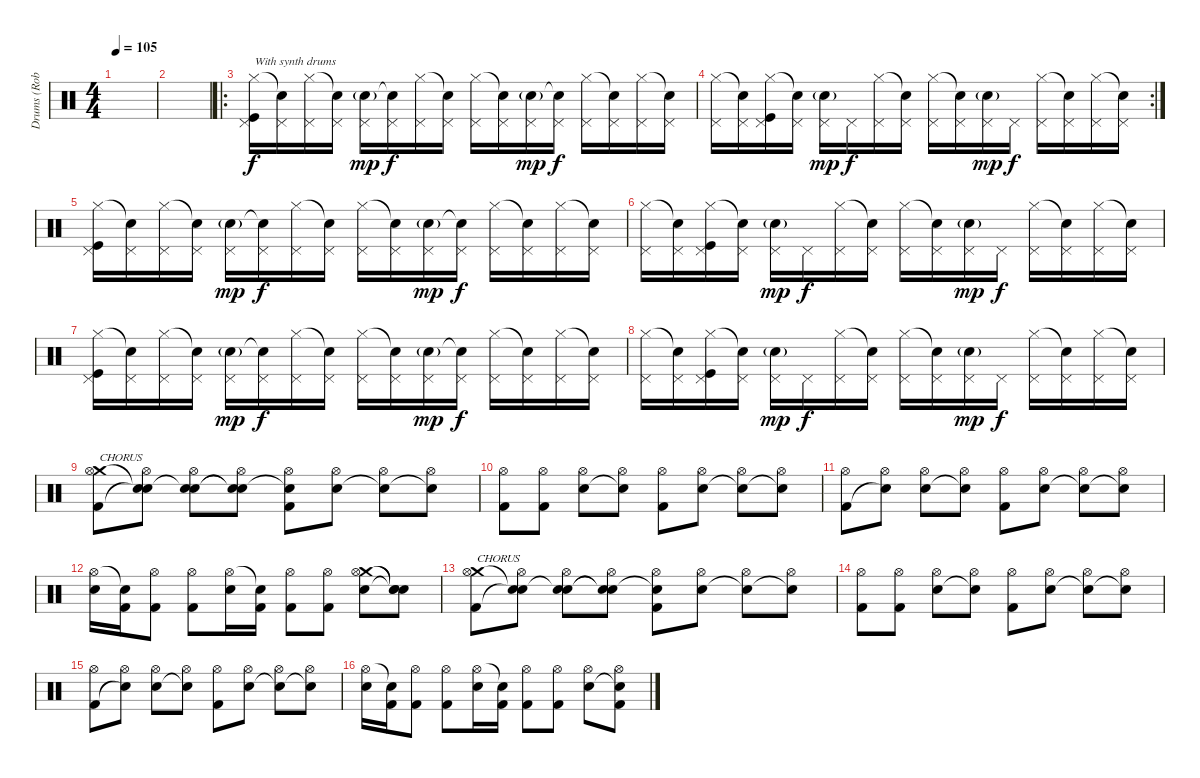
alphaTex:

\track ("Drums (Rob Bourdon)" "Drums (Rob") {instrument percussion}
\staff {score}
\articulation defaults
\ts (4 4)
\tempo 105
\clef neutral
\ks c
|
|
\ro
("Pedal Hi-Hat (hit)" "Hi-Hat (closed)" "Kick (hit)").16{txt "With synth drums"} ("Pedal Hi-Hat (hit)" "Snare (hit)"{t}).16 ("Pedal Hi-Hat (hit)" "Hi-Hat (closed)").16 ("Pedal Hi-Hat (hit)" "Snare (hit)"{t}).16 ("Pedal Hi-Hat (hit)" "Metronome (bell)"{g}).16{dy mp} ("Pedal Hi-Hat (hit)" "Snare (hit)"{t}).16{dy f} ("Pedal Hi-Hat (hit)" "Hi-Hat (closed)").16 ("Pedal Hi-Hat (hit)" "Snare (hit)"{t}).16 ("Pedal Hi-Hat (hit)" "Hi-Hat (closed)").16 ("Pedal Hi-Hat (hit)" "Snare (hit)"{t}).16 ("Pedal Hi-Hat (hit)" "Metronome (bell)"{g}).16{dy mp} ("Pedal Hi-Hat (hit)" "Snare (hit)"{t}).16{dy f} ("Pedal Hi-Hat (hit)" "Hi-Hat (closed)").16 ("Pedal Hi-Hat (hit)" "Snare (hit)"{t}).16 ("Pedal Hi-Hat (hit)" "Hi-Hat (closed)").16 ("Pedal Hi-Hat (hit)" "Snare (hit)"{t}).16 |
\rc 2
("Pedal Hi-Hat (hit)" "Hi-Hat (closed)").16 ("Pedal Hi-Hat (hit)" "Snare (hit)"{t}).16 ("Pedal Hi-Hat (hit)" "Hi-Hat (closed)" "Kick (hit)").16 ("Pedal Hi-Hat (hit)" "Snare (hit)"{t}).16 ("Pedal Hi-Hat (hit)" "Metronome (bell)"{g}).16{dy mp} "Pedal Hi-Hat (hit)".16{dy f} ("Pedal Hi-Hat (hit)" "Hi-Hat (closed)").16 ("Pedal Hi-Hat (hit)" "Snare (hit)"{t}).16 ("Pedal Hi-Hat (hit)" "Hi-Hat (closed)").16 ("Pedal Hi-Hat (hit)" "Snare (hit)"{t}).16 ("Pedal Hi-Hat (hit)" "Metronome (bell)"{g}).16{dy mp} "Pedal Hi-Hat (hit)".16{dy f} ("Pedal Hi-Hat (hit)" "Hi-Hat (closed)").16 ("Pedal Hi-Hat (hit)" "Snare (hit)"{t}).16 ("Pedal Hi-Hat (hit)" "Hi-Hat (closed)").16 ("Pedal Hi-Hat (hit)" "Snare (hit)"{t}).16 |
("Pedal Hi-Hat (hit)" "Hi-Hat (closed)" "Kick (hit)").16 ("Pedal Hi-Hat (hit)" "Snare (hit)"{t}).16 ("Pedal Hi-Hat (hit)" "Hi-Hat (closed)").16 ("Pedal Hi-Hat (hit)" "Snare (hit)"{t}).16 ("Pedal Hi-Hat (hit)" "Metronome (bell)"{g}).16{dy mp} ("Pedal Hi-Hat (hit)" "Snare (hit)"{t}).16{dy f} ("Pedal Hi-Hat (hit)" "Hi-Hat (closed)").16 ("Pedal Hi-Hat (hit)" "Snare (hit)"{t}).16 ("Pedal Hi-Hat (hit)" "Hi-Hat (closed)").16 ("Pedal Hi-Hat (hit)" "Snare (hit)"{t}).16 ("Pedal Hi-Hat (hit)" "Metronome (bell)"{g}).16{dy mp} ("Pedal Hi-Hat (hit)" "Snare (hit)"{t}).16{dy f} ("Pedal Hi-Hat (hit)" "Hi-Hat (closed)").16 ("Pedal Hi-Hat (hit)" "Snare (hit)"{t}).16 ("Pedal Hi-Hat (hit)" "Hi-Hat (closed)").16 ("Pedal Hi-Hat (hit)" "Snare (hit)"{t}).16 |
("Pedal Hi-Hat (hit)" "Hi-Hat (closed)").16 ("Pedal Hi-Hat (hit)" "Snare (hit)"{t}).16 ("Pedal Hi-Hat (hit)" "Hi-Hat (closed)" "Kick (hit)").16 ("Pedal Hi-Hat (hit)" "Snare (hit)"{t}).16 ("Pedal Hi-Hat (hit)" "Metronome (bell)"{g}).16{dy mp} "Pedal Hi-Hat (hit)".16{dy f} ("Pedal Hi-Hat (hit)" "Hi-Hat (closed)").16 ("Pedal Hi-Hat (hit)" "Snare (hit)"{t}).16 ("Pedal Hi-Hat (hit)" "Hi-Hat (closed)").16 ("Pedal Hi-Hat (hit)" "Snare (hit)"{t}).16 ("Pedal Hi-Hat (hit)" "Metronome (bell)"{g}).16{dy mp} "Pedal Hi-Hat (hit)".16{dy f} ("Pedal Hi-Hat (hit)" "Hi-Hat (closed)").16 ("Pedal Hi-Hat (hit)" "Snare (hit)"{t}).16 ("Pedal Hi-Hat (hit)" "Hi-Hat (closed)").16 ("Pedal Hi-Hat (hit)" "Snare (hit)"{t}).16 |
("Pedal Hi-Hat (hit)" "Hi-Hat (closed)" "Kick (hit)").16 ("Pedal Hi-Hat (hit)" "Snare (hit)"{t}).16 ("Pedal Hi-Hat (hit)" "Hi-Hat (closed)").16 ("Pedal Hi-Hat (hit)" "Snare (hit)"{t}).16 ("Pedal Hi-Hat (hit)" "Metronome (bell)"{g}).16{dy mp} ("Pedal Hi-Hat (hit)" "Snare (hit)"{t}).16{dy f} ("Pedal Hi-Hat (hit)" "Hi-Hat (closed)").16 ("Pedal Hi-Hat (hit)" "Snare (hit)"{t}).16 ("Pedal Hi-Hat (hit)" "Hi-Hat (closed)").16 ("Pedal Hi-Hat (hit)" "Snare (hit)"{t}).16 ("Pedal Hi-Hat (hit)" "Metronome (bell)"{g}).16{dy mp} ("Pedal Hi-Hat (hit)" "Snare (hit)"{t}).16{dy f} ("Pedal Hi-Hat (hit)" "Hi-Hat (closed)").16 ("Pedal Hi-Hat (hit)" "Snare (hit)"{t}).16 ("Pedal Hi-Hat (hit)" "Hi-Hat (closed)").16 ("Pedal Hi-Hat (hit)" "Snare (hit)"{t}).16 |
("Pedal Hi-Hat (hit)" "Hi-Hat (closed)").16 ("Pedal Hi-Hat (hit)" "Snare (hit)"{t}).16 ("Pedal Hi-Hat (hit)" "Hi-Hat (closed)" "Kick (hit)").16 ("Pedal Hi-Hat (hit)" "Snare (hit)"{t}).16 ("Pedal Hi-Hat (hit)" "Metronome (bell)"{g}).16{dy mp} "Pedal Hi-Hat (hit)".16{dy f} ("Pedal Hi-Hat (hit)" "Hi-Hat (closed)").16 ("Pedal Hi-Hat (hit)" "Snare (hit)"{t}).16 ("Pedal Hi-Hat (hit)" "Hi-Hat (closed)").16 ("Pedal Hi-Hat (hit)" "Snare (hit)"{t}).16 ("Pedal Hi-Hat (hit)" "Metronome (bell)"{g}).16{dy mp} "Pedal Hi-Hat (hit)".16{dy f} ("Pedal Hi-Hat (hit)" "Hi-Hat (closed)").16 ("Pedal Hi-Hat (hit)" "Snare (hit)"{t}).16 ("Pedal Hi-Hat (hit)" "Hi-Hat (closed)").16 ("Pedal Hi-Hat (hit)" "Snare (hit)"{t}).16 |
("Crash medium (hit)" "Hi-Hat (open)" "Kick (hit) 2").8{txt "CHORUS"} ("Snare (hit)"{t} "Hi-Hat (open)" "Snare (hit)"{t}).8 ("Snare (hit)"{t} "Hi-Hat (open)" "Electric Snare (hit)").8 ("Snare (hit)"{t} "Hi-Hat (open)" "Snare (hit)"{t}).8 ("Snare (hit)"{t} "Hi-Hat (open)" "Kick (hit) 2").8 ("Hi-Hat (open)" "Electric Snare (hit)").8 ("Hi-Hat (open)" "Snare (hit)"{t}).8 ("Hi-Hat (open)" "Snare (hit)"{t}).8 |
("Hi-Hat (open)" "Kick (hit) 2").8 ("Hi-Hat (open)" "Kick (hit) 2").8 ("Hi-Hat (open)" "Electric Snare (hit)").8 ("Hi-Hat (open)" "Snare (hit)"{t}).8 ("Hi-Hat (open)" "Kick (hit) 2").8 ("Hi-Hat (open)" "Electric Snare (hit)").8 ("Hi-Hat (open)" "Snare (hit)"{t}).8 ("Hi-Hat (open)" "Snare (hit)"{t}).8 |
("Hi-Hat (open)" "Kick (hit) 2").8 ("Hi-Hat (open)" "Snare (hit)"{t}).8 ("Hi-Hat (open)" "Electric Snare (hit)").8 ("Hi-Hat (open)" "Snare (hit)"{t}).8 ("Hi-Hat (open)" "Kick (hit) 2").8 ("Hi-Hat (open)" "Electric Snare (hit)").8 ("Hi-Hat (open)" "Snare (hit)"{t}).8 ("Hi-Hat (open)" "Snare (hit)"{t}).8 |
("Hi-Hat (open)" "Electric Snare (hit)").16 ("Snare (hit)"{t} "Kick (hit) 2").16 ("Hi-Hat (open)" "Kick (hit) 2").8 ("Hi-Hat (open)" "Kick (hit) 2").8 ("Hi-Hat (open)" "Electric Snare (hit)").16 ("Snare (hit)"{t} "Kick (hit) 2").16 ("Hi-Hat (open)" "Kick (hit) 2").8 ("Hi-Hat (open)" "Kick (hit) 2").8 ("Crash medium (hit)" "Hi-Hat (open)" "Electric Snare (hit)").8 ("Snare (hit)"{t} "Snare (hit)"{t} "Snare (hit)"{t}).8 |
("Crash medium (hit)" "Hi-Hat (open)" "Kick (hit) 2").8{txt "CHORUS"} ("Snare (hit)"{t} "Hi-Hat (open)" "Snare (hit)"{t}).8 ("Snare (hit)"{t} "Hi-Hat (open)" "Electric Snare (hit)").8 ("Snare (hit)"{t} "Hi-Hat (open)" "Snare (hit)"{t}).8 ("Snare (hit)"{t} "Hi-Hat (open)" "Kick (hit) 2").8 ("Hi-Hat (open)" "Electric Snare (hit)").8 ("Hi-Hat (open)" "Snare (hit)"{t}).8 ("Hi-Hat (open)" "Snare (hit)"{t}).8 |
("Hi-Hat (open)" "Kick (hit) 2").8 ("Hi-Hat (open)" "Kick (hit) 2").8 ("Hi-Hat (open)" "Electric Snare (hit)").8 ("Hi-Hat (open)" "Snare (hit)"{t}).8 ("Hi-Hat (open)" "Kick (hit) 2").8 ("Hi-Hat (open)" "Electric Snare (hit)").8 ("Hi-Hat (open)" "Snare (hit)"{t}).8 ("Hi-Hat (open)" "Snare (hit)"{t}).8 |
("Hi-Hat (open)" "Kick (hit) 2").8 ("Hi-Hat (open)" "Snare (hit)"{t}).8 ("Hi-Hat (open)" "Electric Snare (hit)").8 ("Hi-Hat (open)" "Snare (hit)"{t}).8 ("Hi-Hat (open)" "Kick (hit) 2").8 ("Hi-Hat (open)" "Electric Snare (hit)").8 ("Hi-Hat (open)" "Snare (hit)"{t}).8 ("Hi-Hat (open)" "Snare (hit)"{t}).8 |
("Hi-Hat (open)" "Electric Snare (hit)").16 ("Snare (hit)"{t} "Kick (hit) 2").16 ("Hi-Hat (open)" "Kick (hit) 2").8 ("Hi-Hat (open)" "Kick (hit) 2").8 ("Hi-Hat (open)" "Electric Snare (hit)").16 ("Snare (hit)"{t} "Kick (hit) 2").16 ("Hi-Hat (open)" "Kick (hit) 2").8 ("Hi-Hat (open)" "Kick (hit) 2").8 ("Hi-Hat (open)" "Electric Snare (hit)").8 ("Hi-Hat (open)" "Snare (hit)"{t} "Kick (hit) 2").8
